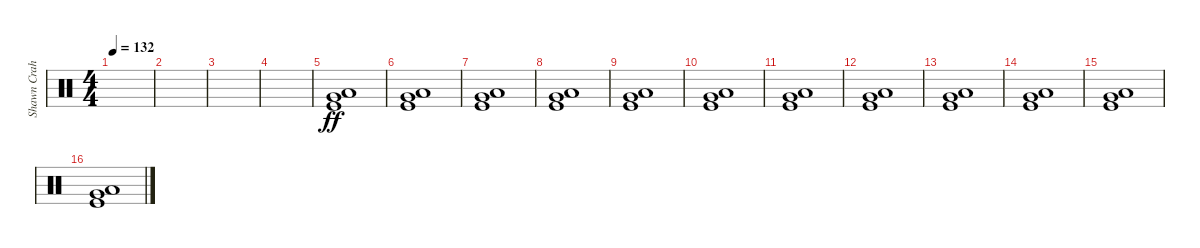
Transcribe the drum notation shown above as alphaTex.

\track ("Shawn Crahan" "Shawn Crah") {instrument percussion}
\staff {score}
\articulation defaults
\ts (4 4)
\tempo 132
\clef neutral
\ks c
|
|
|
|
("Kick (hit)" "Low Floor Tom (hit)" "Very Low Tom (hit)").1{dy ff} |
("Kick (hit)" "Low Floor Tom (hit)" "Very Low Tom (hit)").1 |
("Kick (hit)" "Low Floor Tom (hit)" "Very Low Tom (hit)").1 |
("Kick (hit)" "Low Floor Tom (hit)" "Very Low Tom (hit)").1 |
("Kick (hit)" "Low Floor Tom (hit)" "Very Low Tom (hit)").1 |
("Kick (hit)" "Low Floor Tom (hit)" "Very Low Tom (hit)").1 |
("Kick (hit)" "Low Floor Tom (hit)" "Very Low Tom (hit)").1 |
("Kick (hit)" "Low Floor Tom (hit)" "Very Low Tom (hit)").1 |
("Kick (hit)" "Low Floor Tom (hit)" "Very Low Tom (hit)").1 |
("Kick (hit)" "Low Floor Tom (hit)" "Very Low Tom (hit)").1 |
("Kick (hit)" "Low Floor Tom (hit)" "Very Low Tom (hit)").1 |
("Kick (hit)" "Low Floor Tom (hit)" "Very Low Tom (hit)").1
